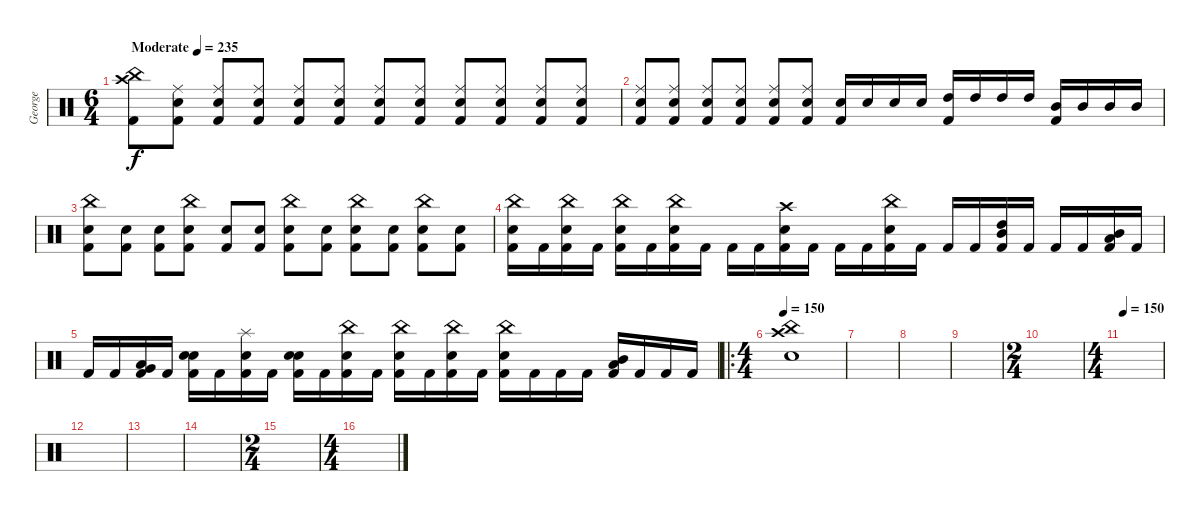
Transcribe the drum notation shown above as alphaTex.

\track ("George" "George") {instrument percussion}
\staff {score}
\articulation defaults
\ts (6 4)
\tempo (235 "Moderate")
\clef neutral
\ks c
("Crash high (hit)" "China (hit)" "Kick (hit) 2").8{dy f} ("Ride (middle)" "Snare (hit) 2" "Kick (hit) 2").8 ("Ride (middle)" "Snare (hit) 2" "Kick (hit) 2").8 ("Ride (middle)" "Snare (hit) 2" "Kick (hit) 2").8 ("Ride (middle)" "Snare (hit) 2" "Kick (hit) 2").8 ("Ride (middle)" "Snare (hit) 2" "Kick (hit) 2").8 ("Ride (middle)" "Snare (hit) 2" "Kick (hit) 2").8 ("Ride (middle)" "Snare (hit) 2" "Kick (hit) 2").8 ("Ride (middle)" "Snare (hit) 2" "Kick (hit) 2").8 ("Ride (middle)" "Snare (hit) 2" "Kick (hit) 2").8 ("Ride (middle)" "Snare (hit) 2" "Kick (hit) 2").8 ("Ride (middle)" "Snare (hit) 2" "Kick (hit) 2").8 |
("Ride (middle)" "Snare (hit) 2" "Kick (hit) 2").8 ("Ride (middle)" "Snare (hit) 2" "Kick (hit) 2").8 ("Ride (middle)" "Snare (hit) 2" "Kick (hit) 2").8 ("Ride (middle)" "Snare (hit) 2" "Kick (hit) 2").8 ("Ride (middle)" "Snare (hit) 2" "Kick (hit) 2").8 ("Ride (middle)" "Snare (hit) 2" "Kick (hit) 2").8 ("Snare (hit) 2" "Kick (hit) 2").16 "Snare (hit) 2".16 "Snare (hit) 2".16 "Snare (hit) 2".16 ("High Tom (hit)" "Kick (hit) 2").16 "High Tom (hit)".16 "High Tom (hit)".16 "High Tom (hit)".16 ("Mid Tom (hit)" "Kick (hit) 2").16 "Mid Tom (hit)".16 "Mid Tom (hit)".16 "Mid Tom (hit)".16 |
("China (hit)" "Snare (hit) 2" "Kick (hit) 2").8 ("Snare (hit) 2" "Kick (hit) 2").8 ("Snare (hit) 2" "Kick (hit) 2").8 ("China (hit)" "Snare (hit) 2" "Kick (hit) 2").8 ("Snare (hit) 2" "Kick (hit) 2").8 ("Snare (hit) 2" "Kick (hit) 2").8 ("China (hit)" "Snare (hit) 2" "Kick (hit) 2").8 ("Snare (hit)" "Kick (hit) 2").8 ("China (hit)" "Snare (hit) 2" "Kick (hit) 2").8 ("Snare (hit)" "Kick (hit) 2").8 ("China (hit)" "Snare (hit) 2" "Kick (hit) 2").8 ("Snare (hit)" "Kick (hit) 2").8 |
("China (hit)" "Snare (hit) 2" "Kick (hit) 2").16 "Kick (hit) 2".16 ("China (hit)" "Snare (hit) 2" "Kick (hit) 2").16 "Kick (hit) 2".16 ("China (hit)" "Snare (hit) 2" "Kick (hit) 2").16 "Kick (hit) 2".16 ("China (hit)" "Snare (hit) 2" "Kick (hit) 2").16 "Kick (hit) 2".16 "Kick (hit) 2".16 "Kick (hit) 2".16 ("Crash high (hit)" "Snare (hit) 2" "Kick (hit) 2").16 "Kick (hit) 2".16 "Kick (hit) 2".16 "Kick (hit) 2".16 ("China (hit)" "Snare (hit) 2" "Kick (hit) 2").16 "Kick (hit) 2".16 "Kick (hit) 2".16 "Kick (hit) 2".16 ("Mid Tom (hit)" "High Tom (hit)" "Kick (hit) 2").16 "Kick (hit) 2".16 "Kick (hit) 2".16 "Kick (hit) 2".16 ("Low Tom (hit)" "Mid Tom (hit)" "Kick (hit) 2").16 "Kick (hit) 2".16 |
"Kick (hit) 2".16 "Kick (hit) 2".16 ("Very Low Tom (hit)" "Low Tom (hit)" "Kick (hit) 2").16 "Kick (hit) 2".16 ("Snare (hit)" "Snare (hit)" "Kick (hit) 2").16 "Kick (hit) 2".16 ("Splash (hit)" "Snare (hit) 2" "Kick (hit) 2").16 "Kick (hit) 2".16 ("Snare (hit)" "Snare (hit)" "Kick (hit) 2").16 "Kick (hit) 2".16 ("China (hit)" "Snare (hit) 2" "Kick (hit) 2").16 "Kick (hit) 2".16 ("China (hit)" "Snare (hit) 2" "Kick (hit) 2").16 "Kick (hit) 2".16 ("China (hit)" "Snare (hit) 2" "Kick (hit) 2").16 "Kick (hit) 2".16 ("China (hit)" "Snare (hit) 2" "Kick (hit) 2").16 "Kick (hit) 2".16 "Kick (hit) 2".16 "Kick (hit) 2".16 ("Low Tom (hit)" "Mid Tom (hit)" "Kick (hit) 2").16 "Kick (hit) 2".16 "Kick (hit) 2".16 "Kick (hit) 2".16 |
\ro
\ts (4 4)
\tempo 150
("China (hit)" "Crash high (hit)" "Snare (hit)").1 |
|
|
|
\ts (2 4)
|
\ts (4 4)
\tempo 150
|
|
|
|
\ts (2 4)
|
\ts (4 4)
